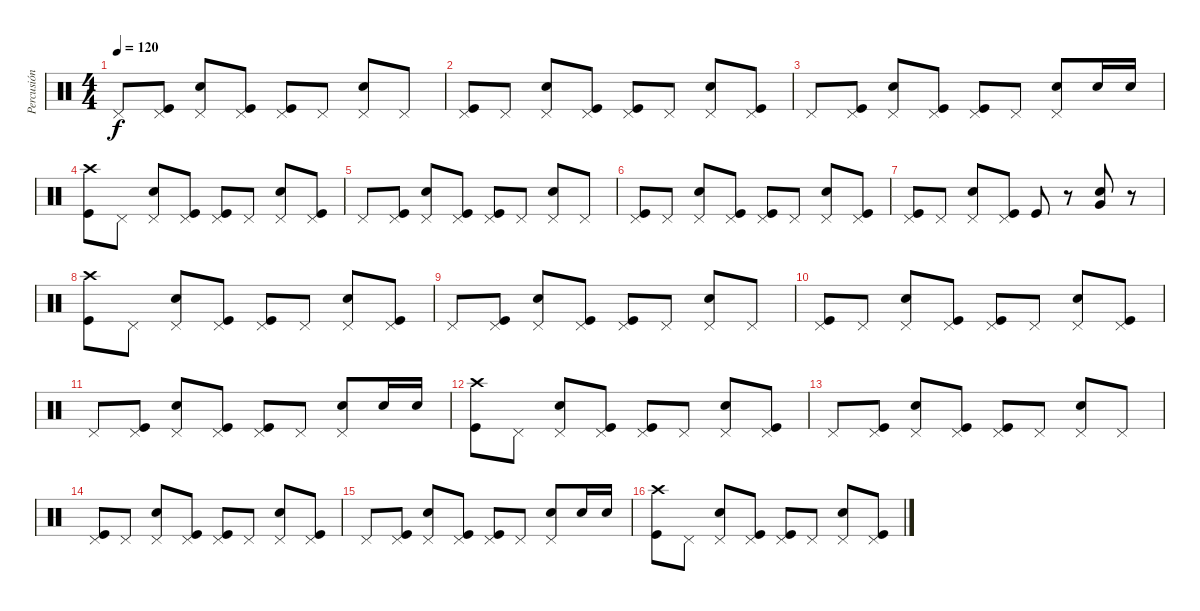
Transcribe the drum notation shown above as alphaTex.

\track ("Percusión" "Percusión") {instrument percussion}
\staff {score}
\articulation defaults
\ts (4 4)
\tempo 120
\clef neutral
\ks c "Pedal Hi-Hat (hit)".8{dy f}
("Pedal Hi-Hat (hit)" "Kick (hit)").8 ("Pedal Hi-Hat (hit)" "Electric Snare (hit)").8 ("Pedal Hi-Hat (hit)" "Kick (hit)").8 ("Pedal Hi-Hat (hit)" "Kick (hit)").8 "Pedal Hi-Hat (hit)".8 ("Pedal Hi-Hat (hit)" "Electric Snare (hit)").8 "Pedal Hi-Hat (hit)".8 |
("Pedal Hi-Hat (hit)" "Kick (hit)").8 "Pedal Hi-Hat (hit)".8 ("Pedal Hi-Hat (hit)" "Electric Snare (hit)").8 ("Pedal Hi-Hat (hit)" "Kick (hit)").8 ("Pedal Hi-Hat (hit)" "Kick (hit)").8 "Pedal Hi-Hat (hit)".8 ("Pedal Hi-Hat (hit)" "Electric Snare (hit)").8 ("Pedal Hi-Hat (hit)" "Kick (hit)").8 |
"Pedal Hi-Hat (hit)".8 ("Pedal Hi-Hat (hit)" "Kick (hit)").8 ("Pedal Hi-Hat (hit)" "Electric Snare (hit)").8 ("Pedal Hi-Hat (hit)" "Kick (hit)").8 ("Pedal Hi-Hat (hit)" "Kick (hit)").8 "Pedal Hi-Hat (hit)".8 ("Pedal Hi-Hat (hit)" "Electric Snare (hit)").8 "Electric Snare (hit)".16 "Electric Snare (hit)".16 |
("Crash high (hit)" "Kick (hit)").8 "Pedal Hi-Hat (hit)".8 ("Pedal Hi-Hat (hit)" "Electric Snare (hit)").8 ("Pedal Hi-Hat (hit)" "Kick (hit)").8 ("Pedal Hi-Hat (hit)" "Kick (hit)").8 "Pedal Hi-Hat (hit)".8 ("Pedal Hi-Hat (hit)" "Electric Snare (hit)").8 ("Pedal Hi-Hat (hit)" "Kick (hit)").8 |
"Pedal Hi-Hat (hit)".8 ("Pedal Hi-Hat (hit)" "Kick (hit)").8 ("Pedal Hi-Hat (hit)" "Electric Snare (hit)").8 ("Pedal Hi-Hat (hit)" "Kick (hit)").8 ("Pedal Hi-Hat (hit)" "Kick (hit)").8 "Pedal Hi-Hat (hit)".8 ("Pedal Hi-Hat (hit)" "Electric Snare (hit)").8 "Pedal Hi-Hat (hit)".8 |
("Pedal Hi-Hat (hit)" "Kick (hit)").8 "Pedal Hi-Hat (hit)".8 ("Pedal Hi-Hat (hit)" "Electric Snare (hit)").8 ("Pedal Hi-Hat (hit)" "Kick (hit)").8 ("Pedal Hi-Hat (hit)" "Kick (hit)").8 "Pedal Hi-Hat (hit)".8 ("Pedal Hi-Hat (hit)" "Electric Snare (hit)").8 ("Pedal Hi-Hat (hit)" "Kick (hit)").8 |
("Pedal Hi-Hat (hit)" "Kick (hit)").8 "Pedal Hi-Hat (hit)".8 ("Pedal Hi-Hat (hit)" "Electric Snare (hit)").8 ("Pedal Hi-Hat (hit)" "Kick (hit)").8 "Kick (hit)".8 r.8 ("Very Low Tom (hit)" "Electric Snare (hit)").8 r.8 |
("Crash high (hit)" "Kick (hit)").8 "Pedal Hi-Hat (hit)".8 ("Pedal Hi-Hat (hit)" "Electric Snare (hit)").8 ("Pedal Hi-Hat (hit)" "Kick (hit)").8 ("Pedal Hi-Hat (hit)" "Kick (hit)").8 "Pedal Hi-Hat (hit)".8 ("Pedal Hi-Hat (hit)" "Electric Snare (hit)").8 ("Pedal Hi-Hat (hit)" "Kick (hit)").8 |
"Pedal Hi-Hat (hit)".8 ("Pedal Hi-Hat (hit)" "Kick (hit)").8 ("Pedal Hi-Hat (hit)" "Electric Snare (hit)").8 ("Pedal Hi-Hat (hit)" "Kick (hit)").8 ("Pedal Hi-Hat (hit)" "Kick (hit)").8 "Pedal Hi-Hat (hit)".8 ("Pedal Hi-Hat (hit)" "Electric Snare (hit)").8 "Pedal Hi-Hat (hit)".8 |
("Pedal Hi-Hat (hit)" "Kick (hit)").8 "Pedal Hi-Hat (hit)".8 ("Pedal Hi-Hat (hit)" "Electric Snare (hit)").8 ("Pedal Hi-Hat (hit)" "Kick (hit)").8 ("Pedal Hi-Hat (hit)" "Kick (hit)").8 "Pedal Hi-Hat (hit)".8 ("Pedal Hi-Hat (hit)" "Electric Snare (hit)").8 ("Pedal Hi-Hat (hit)" "Kick (hit)").8 |
"Pedal Hi-Hat (hit)".8 ("Pedal Hi-Hat (hit)" "Kick (hit)").8 ("Pedal Hi-Hat (hit)" "Electric Snare (hit)").8 ("Pedal Hi-Hat (hit)" "Kick (hit)").8 ("Pedal Hi-Hat (hit)" "Kick (hit)").8 "Pedal Hi-Hat (hit)".8 ("Pedal Hi-Hat (hit)" "Electric Snare (hit)").8 "Electric Snare (hit)".16 "Electric Snare (hit)".16 |
("Crash high (hit)" "Kick (hit)").8 "Pedal Hi-Hat (hit)".8 ("Pedal Hi-Hat (hit)" "Electric Snare (hit)").8 ("Pedal Hi-Hat (hit)" "Kick (hit)").8 ("Pedal Hi-Hat (hit)" "Kick (hit)").8 "Pedal Hi-Hat (hit)".8 ("Pedal Hi-Hat (hit)" "Electric Snare (hit)").8 ("Pedal Hi-Hat (hit)" "Kick (hit)").8 |
"Pedal Hi-Hat (hit)".8 ("Pedal Hi-Hat (hit)" "Kick (hit)").8 ("Pedal Hi-Hat (hit)" "Electric Snare (hit)").8 ("Pedal Hi-Hat (hit)" "Kick (hit)").8 ("Pedal Hi-Hat (hit)" "Kick (hit)").8 "Pedal Hi-Hat (hit)".8 ("Pedal Hi-Hat (hit)" "Electric Snare (hit)").8 "Pedal Hi-Hat (hit)".8 |
("Pedal Hi-Hat (hit)" "Kick (hit)").8 "Pedal Hi-Hat (hit)".8 ("Pedal Hi-Hat (hit)" "Electric Snare (hit)").8 ("Pedal Hi-Hat (hit)" "Kick (hit)").8 ("Pedal Hi-Hat (hit)" "Kick (hit)").8 "Pedal Hi-Hat (hit)".8 ("Pedal Hi-Hat (hit)" "Electric Snare (hit)").8 ("Pedal Hi-Hat (hit)" "Kick (hit)").8 |
"Pedal Hi-Hat (hit)".8 ("Pedal Hi-Hat (hit)" "Kick (hit)").8 ("Pedal Hi-Hat (hit)" "Electric Snare (hit)").8 ("Pedal Hi-Hat (hit)" "Kick (hit)").8 ("Pedal Hi-Hat (hit)" "Kick (hit)").8 "Pedal Hi-Hat (hit)".8 ("Pedal Hi-Hat (hit)" "Electric Snare (hit)").8 "Electric Snare (hit)".16 "Electric Snare (hit)".16 |
("Crash high (hit)" "Kick (hit)").8 "Pedal Hi-Hat (hit)".8 ("Pedal Hi-Hat (hit)" "Electric Snare (hit)").8 ("Pedal Hi-Hat (hit)" "Kick (hit)").8 ("Pedal Hi-Hat (hit)" "Kick (hit)").8 "Pedal Hi-Hat (hit)".8 ("Pedal Hi-Hat (hit)" "Electric Snare (hit)").8 ("Pedal Hi-Hat (hit)" "Kick (hit)").8
